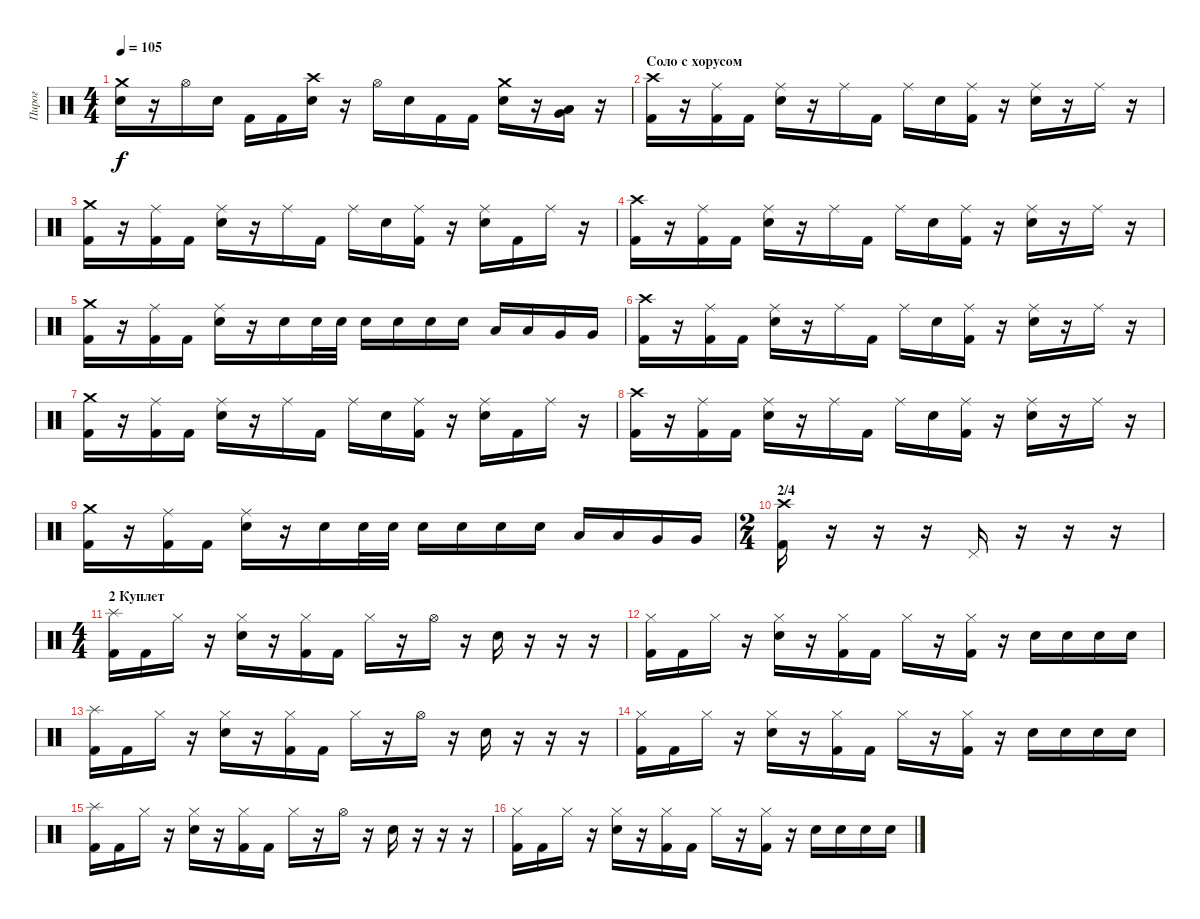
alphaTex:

\track ("Пирог" "Пирог") {instrument percussion}
\staff {score}
\articulation defaults
\ts (4 4)
\tempo 105
\clef neutral
\ks c
("Crash medium (hit)" "Electric Snare (hit)").16{dy f} r.16 "Hi-Hat (open)".16 "Electric Snare (hit)".16 "Kick (hit) 2".16 "Kick (hit) 2".16 ("Crash high (hit)" "Electric Snare (hit)").16 r.16 "Hi-Hat (open)".16 "Electric Snare (hit)".16 "Kick (hit) 2".16 "Kick (hit) 2".16 ("Crash medium (hit)" "Electric Snare (hit)").16 r.16 ("Very Low Tom (hit)" "Low Floor Tom (hit)").16 r.16 |
\section ("" "Соло с хорусом")
("Crash high (hit)" "Kick (hit) 2").16 r.16 ("Ride (middle)" "Kick (hit) 2").16 "Kick (hit) 2".16 ("Ride (middle)" "Electric Snare (hit)").16 r.16 "Ride (middle)".16 "Kick (hit) 2".16 "Ride (middle)".16 "Electric Snare (hit)".16 ("Ride (middle)" "Kick (hit) 2").16 r.16 ("Ride (middle)" "Electric Snare (hit)").16 r.16 "Ride (middle)".16 r.16 |
("Crash medium (hit)" "Kick (hit) 2").16 r.16 ("Ride (middle)" "Kick (hit) 2").16 "Kick (hit) 2".16 ("Ride (middle)" "Electric Snare (hit)").16 r.16 "Ride (middle)".16 "Kick (hit) 2".16 "Ride (middle)".16 "Electric Snare (hit)".16 ("Ride (middle)" "Kick (hit) 2").16 r.16 ("Ride (middle)" "Electric Snare (hit)").16 "Kick (hit) 2".16 "Ride (middle)".16 r.16 |
("Crash high (hit)" "Kick (hit) 2").16 r.16 ("Ride (middle)" "Kick (hit) 2").16 "Kick (hit) 2".16 ("Ride (middle)" "Electric Snare (hit)").16 r.16 "Ride (middle)".16 "Kick (hit) 2".16 "Ride (middle)".16 "Electric Snare (hit)".16 ("Ride (middle)" "Kick (hit) 2").16 r.16 ("Ride (middle)" "Electric Snare (hit)").16 r.16 "Ride (middle)".16 r.16 |
("Crash medium (hit)" "Kick (hit) 2").16 r.16 ("Ride (middle)" "Kick (hit) 2").16 "Kick (hit) 2".16 ("Ride (middle)" "Electric Snare (hit)").16 r.16 "Electric Snare (hit)".16 "Electric Snare (hit)".32 "Electric Snare (hit)".32 "Electric Snare (hit)".16 "Electric Snare (hit)".16 "Electric Snare (hit)".16 "Electric Snare (hit)".16 "Low Tom (hit)".16 "Low Tom (hit)".16 "Very Low Tom (hit)".16 "Very Low Tom (hit)".16 |
("Crash high (hit)" "Kick (hit) 2").16 r.16 ("Ride (middle)" "Kick (hit) 2").16 "Kick (hit) 2".16 ("Ride (middle)" "Electric Snare (hit)").16 r.16 "Ride (middle)".16 "Kick (hit) 2".16 "Ride (middle)".16 "Electric Snare (hit)".16 ("Ride (middle)" "Kick (hit) 2").16 r.16 ("Ride (middle)" "Electric Snare (hit)").16 r.16 "Ride (middle)".16 r.16 |
("Crash medium (hit)" "Kick (hit) 2").16 r.16 ("Ride (middle)" "Kick (hit) 2").16 "Kick (hit) 2".16 ("Ride (middle)" "Electric Snare (hit)").16 r.16 "Ride (middle)".16 "Kick (hit) 2".16 "Ride (middle)".16 "Electric Snare (hit)".16 ("Ride (middle)" "Kick (hit) 2").16 r.16 ("Ride (middle)" "Electric Snare (hit)").16 "Kick (hit) 2".16 "Ride (middle)".16 r.16 |
("Crash high (hit)" "Kick (hit) 2").16 r.16 ("Ride (middle)" "Kick (hit) 2").16 "Kick (hit) 2".16 ("Ride (middle)" "Electric Snare (hit)").16 r.16 "Ride (middle)".16 "Kick (hit) 2".16 "Ride (middle)".16 "Electric Snare (hit)".16 ("Ride (middle)" "Kick (hit) 2").16 r.16 ("Ride (middle)" "Electric Snare (hit)").16 r.16 "Ride (middle)".16 r.16 |
("Crash medium (hit)" "Kick (hit) 2").16 r.16 ("Ride (middle)" "Kick (hit) 2").16 "Kick (hit) 2".16 ("Ride (middle)" "Electric Snare (hit)").16 r.16 "Electric Snare (hit)".16 "Electric Snare (hit)".32 "Electric Snare (hit)".32 "Electric Snare (hit)".16 "Electric Snare (hit)".16 "Electric Snare (hit)".16 "Electric Snare (hit)".16 "Low Tom (hit)".16 "Low Tom (hit)".16 "Very Low Tom (hit)".16 "Very Low Tom (hit)".16 |
\ts (2 4)
\section ("" "2/4")
("Crash high (hit)" "Kick (hit) 2").16 r.16 r.16 r.16 "Pedal Hi-Hat (hit)".16 r.16 r.16 r.16 |
\ts (4 4)
\section ("" "2 Куплет")
("Splash (hit)" "Kick (hit) 2").16 "Kick (hit) 2".16 "Hi-Hat (closed)".16 r.16 ("Hi-Hat (closed)" "Electric Snare (hit)").16 r.16 ("Hi-Hat (closed)" "Kick (hit) 2").16 "Kick (hit) 2".16 "Hi-Hat (closed)".16 r.16 "Hi-Hat (open)".16 r.16 "Electric Snare (hit)".16 r.16 r.16 r.16 |
("Hi-Hat (closed)" "Kick (hit) 2").16 "Kick (hit) 2".16 "Hi-Hat (closed)".16 r.16 ("Hi-Hat (closed)" "Electric Snare (hit)").16 r.16 ("Hi-Hat (closed)" "Kick (hit) 2").16 "Kick (hit) 2".16 "Hi-Hat (closed)".16 r.16 ("Hi-Hat (closed)" "Kick (hit) 2").16 r.16 "Electric Snare (hit)".16 "Electric Snare (hit)".16 "Electric Snare (hit)".16 "Electric Snare (hit)".16 |
("Splash (hit)" "Kick (hit) 2").16 "Kick (hit) 2".16 "Hi-Hat (closed)".16 r.16 ("Hi-Hat (closed)" "Electric Snare (hit)").16 r.16 ("Hi-Hat (closed)" "Kick (hit) 2").16 "Kick (hit) 2".16 "Hi-Hat (closed)".16 r.16 "Hi-Hat (open)".16 r.16 "Electric Snare (hit)".16 r.16 r.16 r.16 |
("Hi-Hat (closed)" "Kick (hit) 2").16 "Kick (hit) 2".16 "Hi-Hat (closed)".16 r.16 ("Hi-Hat (closed)" "Electric Snare (hit)").16 r.16 ("Hi-Hat (closed)" "Kick (hit) 2").16 "Kick (hit) 2".16 "Hi-Hat (closed)".16 r.16 ("Hi-Hat (closed)" "Kick (hit) 2").16 r.16 "Electric Snare (hit)".16 "Electric Snare (hit)".16 "Electric Snare (hit)".16 "Electric Snare (hit)".16 |
("Splash (hit)" "Kick (hit) 2").16 "Kick (hit) 2".16 "Hi-Hat (closed)".16 r.16 ("Hi-Hat (closed)" "Electric Snare (hit)").16 r.16 ("Hi-Hat (closed)" "Kick (hit) 2").16 "Kick (hit) 2".16 "Hi-Hat (closed)".16 r.16 "Hi-Hat (open)".16 r.16 "Electric Snare (hit)".16 r.16 r.16 r.16 |
("Hi-Hat (closed)" "Kick (hit) 2").16 "Kick (hit) 2".16 "Hi-Hat (closed)".16 r.16 ("Hi-Hat (closed)" "Electric Snare (hit)").16 r.16 ("Hi-Hat (closed)" "Kick (hit) 2").16 "Kick (hit) 2".16 "Hi-Hat (closed)".16 r.16 ("Hi-Hat (closed)" "Kick (hit) 2").16 r.16 "Electric Snare (hit)".16 "Electric Snare (hit)".16 "Electric Snare (hit)".16 "Electric Snare (hit)".16
